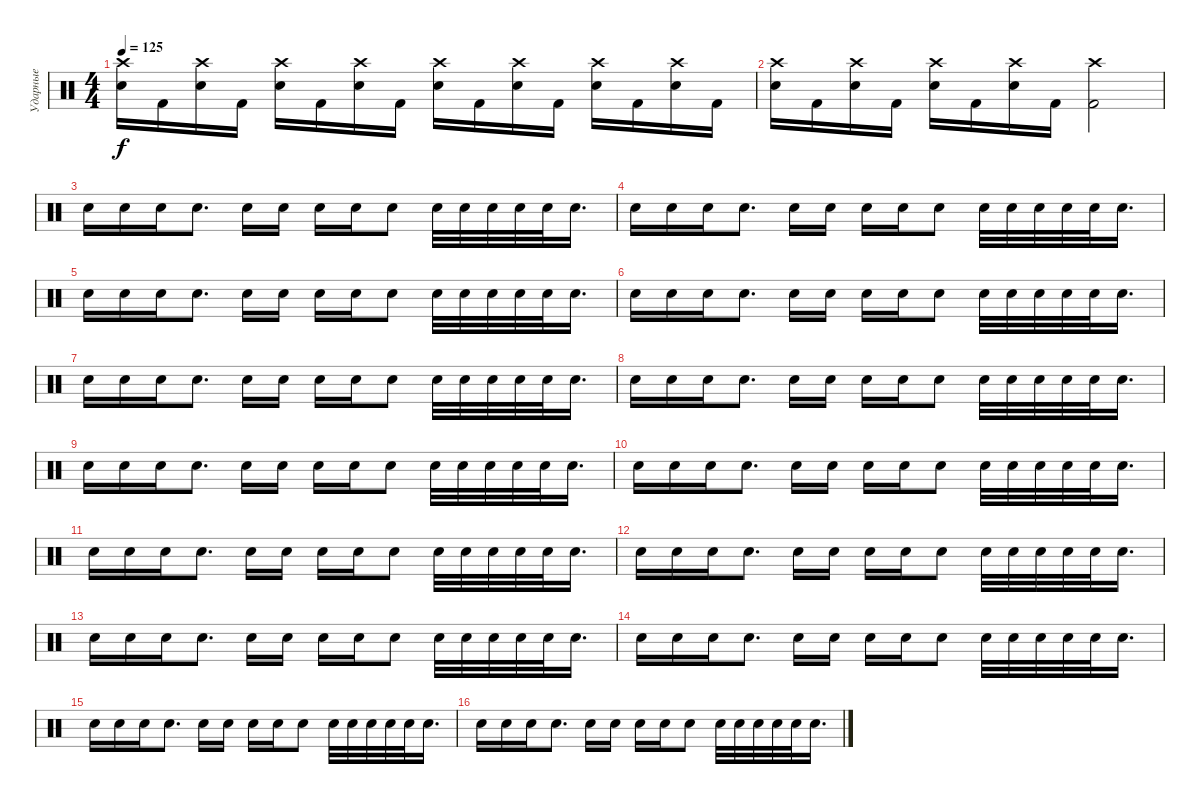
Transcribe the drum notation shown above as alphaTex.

\track ("Ударные" "Ударные") {instrument percussion}
\staff {score}
\articulation defaults
\ts (4 4)
\tempo 125
\clef neutral
\ks c
("Electric Snare (hit)" "Crash high (hit)").16{dy f} "Kick (hit) 2".16 ("Electric Snare (hit)" "Crash high (hit)").16 "Kick (hit) 2".16 ("Electric Snare (hit)" "Crash high (hit)").16 "Kick (hit) 2".16 ("Electric Snare (hit)" "Crash high (hit)").16 "Kick (hit) 2".16 ("Electric Snare (hit)" "Crash high (hit)").16 "Kick (hit) 2".16 ("Electric Snare (hit)" "Crash high (hit)").16 "Kick (hit) 2".16 ("Electric Snare (hit)" "Crash high (hit)").16 "Kick (hit) 2".16 ("Electric Snare (hit)" "Crash high (hit)").16 "Kick (hit) 2".16 |
("Electric Snare (hit)" "Crash high (hit)").16 "Kick (hit) 2".16 ("Electric Snare (hit)" "Crash high (hit)").16 "Kick (hit) 2".16 ("Electric Snare (hit)" "Crash high (hit)").16 "Kick (hit) 2".16 ("Electric Snare (hit)" "Crash high (hit)").16 "Kick (hit) 2".16 ("Crash high (hit)" "Kick (hit) 2").2 |
"Electric Snare (hit)".16 "Electric Snare (hit)".16 "Electric Snare (hit)".16 "Electric Snare (hit)".8{d} "Electric Snare (hit)".16 "Electric Snare (hit)".16 "Electric Snare (hit)".16 "Electric Snare (hit)".16 "Electric Snare (hit)".8 "Electric Snare (hit)".32 "Electric Snare (hit)".32 "Electric Snare (hit)".32 "Electric Snare (hit)".32 "Electric Snare (hit)".32 "Electric Snare (hit)".16{d} |
"Electric Snare (hit)".16 "Electric Snare (hit)".16 "Electric Snare (hit)".16 "Electric Snare (hit)".8{d} "Electric Snare (hit)".16 "Electric Snare (hit)".16 "Electric Snare (hit)".16 "Electric Snare (hit)".16 "Electric Snare (hit)".8 "Electric Snare (hit)".32 "Electric Snare (hit)".32 "Electric Snare (hit)".32 "Electric Snare (hit)".32 "Electric Snare (hit)".32 "Electric Snare (hit)".16{d} |
"Electric Snare (hit)".16 "Electric Snare (hit)".16 "Electric Snare (hit)".16 "Electric Snare (hit)".8{d} "Electric Snare (hit)".16 "Electric Snare (hit)".16 "Electric Snare (hit)".16 "Electric Snare (hit)".16 "Electric Snare (hit)".8 "Electric Snare (hit)".32 "Electric Snare (hit)".32 "Electric Snare (hit)".32 "Electric Snare (hit)".32 "Electric Snare (hit)".32 "Electric Snare (hit)".16{d} |
"Electric Snare (hit)".16 "Electric Snare (hit)".16 "Electric Snare (hit)".16 "Electric Snare (hit)".8{d} "Electric Snare (hit)".16 "Electric Snare (hit)".16 "Electric Snare (hit)".16 "Electric Snare (hit)".16 "Electric Snare (hit)".8 "Electric Snare (hit)".32 "Electric Snare (hit)".32 "Electric Snare (hit)".32 "Electric Snare (hit)".32 "Electric Snare (hit)".32 "Electric Snare (hit)".16{d} |
"Electric Snare (hit)".16 "Electric Snare (hit)".16 "Electric Snare (hit)".16 "Electric Snare (hit)".8{d} "Electric Snare (hit)".16 "Electric Snare (hit)".16 "Electric Snare (hit)".16 "Electric Snare (hit)".16 "Electric Snare (hit)".8 "Electric Snare (hit)".32 "Electric Snare (hit)".32 "Electric Snare (hit)".32 "Electric Snare (hit)".32 "Electric Snare (hit)".32 "Electric Snare (hit)".16{d} |
"Electric Snare (hit)".16 "Electric Snare (hit)".16 "Electric Snare (hit)".16 "Electric Snare (hit)".8{d} "Electric Snare (hit)".16 "Electric Snare (hit)".16 "Electric Snare (hit)".16 "Electric Snare (hit)".16 "Electric Snare (hit)".8 "Electric Snare (hit)".32 "Electric Snare (hit)".32 "Electric Snare (hit)".32 "Electric Snare (hit)".32 "Electric Snare (hit)".32 "Electric Snare (hit)".16{d} |
"Electric Snare (hit)".16 "Electric Snare (hit)".16 "Electric Snare (hit)".16 "Electric Snare (hit)".8{d} "Electric Snare (hit)".16 "Electric Snare (hit)".16 "Electric Snare (hit)".16 "Electric Snare (hit)".16 "Electric Snare (hit)".8 "Electric Snare (hit)".32 "Electric Snare (hit)".32 "Electric Snare (hit)".32 "Electric Snare (hit)".32 "Electric Snare (hit)".32 "Electric Snare (hit)".16{d} |
"Electric Snare (hit)".16 "Electric Snare (hit)".16 "Electric Snare (hit)".16 "Electric Snare (hit)".8{d} "Electric Snare (hit)".16 "Electric Snare (hit)".16 "Electric Snare (hit)".16 "Electric Snare (hit)".16 "Electric Snare (hit)".8 "Electric Snare (hit)".32 "Electric Snare (hit)".32 "Electric Snare (hit)".32 "Electric Snare (hit)".32 "Electric Snare (hit)".32 "Electric Snare (hit)".16{d} |
"Electric Snare (hit)".16 "Electric Snare (hit)".16 "Electric Snare (hit)".16 "Electric Snare (hit)".8{d} "Electric Snare (hit)".16 "Electric Snare (hit)".16 "Electric Snare (hit)".16 "Electric Snare (hit)".16 "Electric Snare (hit)".8 "Electric Snare (hit)".32 "Electric Snare (hit)".32 "Electric Snare (hit)".32 "Electric Snare (hit)".32 "Electric Snare (hit)".32 "Electric Snare (hit)".16{d} |
"Electric Snare (hit)".16 "Electric Snare (hit)".16 "Electric Snare (hit)".16 "Electric Snare (hit)".8{d} "Electric Snare (hit)".16 "Electric Snare (hit)".16 "Electric Snare (hit)".16 "Electric Snare (hit)".16 "Electric Snare (hit)".8 "Electric Snare (hit)".32 "Electric Snare (hit)".32 "Electric Snare (hit)".32 "Electric Snare (hit)".32 "Electric Snare (hit)".32 "Electric Snare (hit)".16{d} |
"Electric Snare (hit)".16 "Electric Snare (hit)".16 "Electric Snare (hit)".16 "Electric Snare (hit)".8{d} "Electric Snare (hit)".16 "Electric Snare (hit)".16 "Electric Snare (hit)".16 "Electric Snare (hit)".16 "Electric Snare (hit)".8 "Electric Snare (hit)".32 "Electric Snare (hit)".32 "Electric Snare (hit)".32 "Electric Snare (hit)".32 "Electric Snare (hit)".32 "Electric Snare (hit)".16{d} |
"Electric Snare (hit)".16 "Electric Snare (hit)".16 "Electric Snare (hit)".16 "Electric Snare (hit)".8{d} "Electric Snare (hit)".16 "Electric Snare (hit)".16 "Electric Snare (hit)".16 "Electric Snare (hit)".16 "Electric Snare (hit)".8 "Electric Snare (hit)".32 "Electric Snare (hit)".32 "Electric Snare (hit)".32 "Electric Snare (hit)".32 "Electric Snare (hit)".32 "Electric Snare (hit)".16{d} |
"Electric Snare (hit)".16 "Electric Snare (hit)".16 "Electric Snare (hit)".16 "Electric Snare (hit)".8{d} "Electric Snare (hit)".16 "Electric Snare (hit)".16 "Electric Snare (hit)".16 "Electric Snare (hit)".16 "Electric Snare (hit)".8 "Electric Snare (hit)".32 "Electric Snare (hit)".32 "Electric Snare (hit)".32 "Electric Snare (hit)".32 "Electric Snare (hit)".32 "Electric Snare (hit)".16{d} |
"Electric Snare (hit)".16 "Electric Snare (hit)".16 "Electric Snare (hit)".16 "Electric Snare (hit)".8{d} "Electric Snare (hit)".16 "Electric Snare (hit)".16 "Electric Snare (hit)".16 "Electric Snare (hit)".16 "Electric Snare (hit)".8 "Electric Snare (hit)".32 "Electric Snare (hit)".32 "Electric Snare (hit)".32 "Electric Snare (hit)".32 "Electric Snare (hit)".32 "Electric Snare (hit)".16{d}
